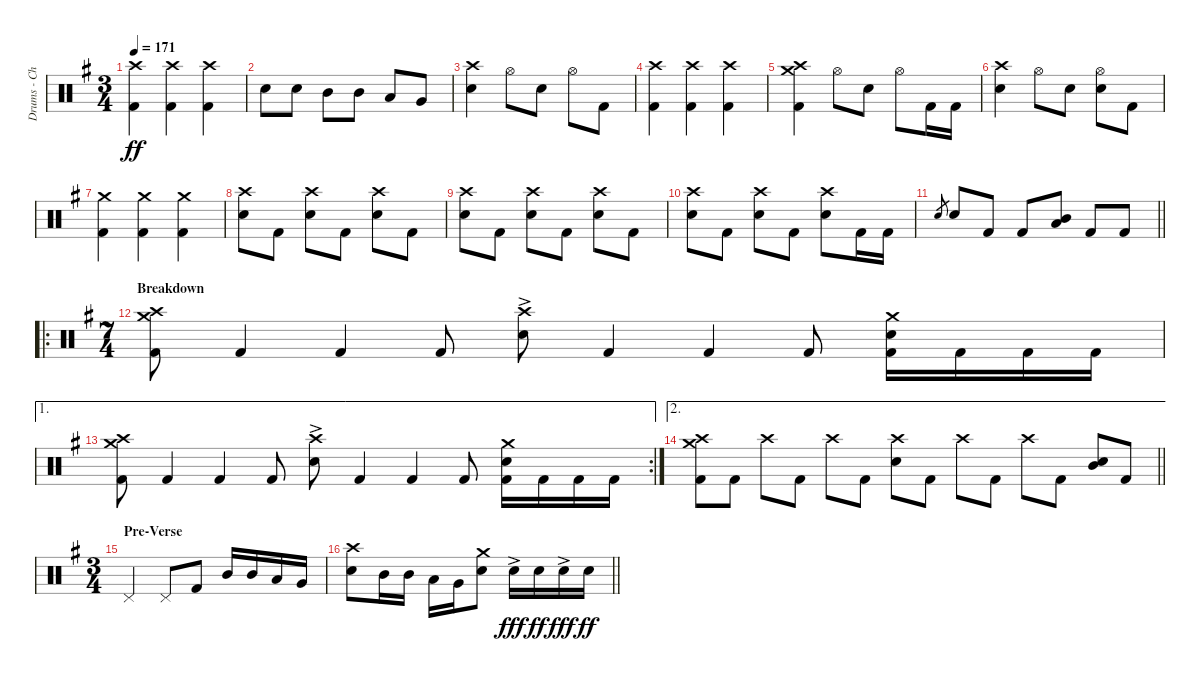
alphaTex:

\track ("Drums - Chris Hornbrook" "Drums - Ch") {instrument percussion}
\staff {score}
\articulation defaults
\ts (3 4)
\tempo 171
\clef neutral
\ks eminor
("Crash high (hit)" "Kick (hit) 2").4{dy ff} ("Crash high (hit)" "Kick (hit) 2").4 ("Crash high (hit)" "Kick (hit) 2").4 |
"Electric Snare (hit)".8 "Electric Snare (hit)".8 "Mid Tom (hit)".8 "Mid Tom (hit)".8 "Low Tom (hit)".8 "Very Low Tom (hit)".8 |
("Crash high (hit)" "Electric Snare (hit)").4 "Hi-Hat (open)".8 "Electric Snare (hit)".8 "Hi-Hat (open)".8 "Kick (hit) 2".8 |
("Crash high (hit)" "Kick (hit) 2").4 ("Crash high (hit)" "Kick (hit) 2").4 ("Crash high (hit)" "Kick (hit) 2").4 |
("Crash medium (hit)" "Crash high (hit)" "Kick (hit) 2").4 "Hi-Hat (open)".8 "Electric Snare (hit)".8 "Hi-Hat (open)".8 "Kick (hit) 2".16 "Kick (hit) 2".16 |
("Crash high (hit)" "Electric Snare (hit)").4 "Hi-Hat (open)".8 "Electric Snare (hit)".8 ("Hi-Hat (open)" "Electric Snare (hit)").8 "Kick (hit) 2".8 |
("Crash medium (hit)" "Kick (hit) 2").4 ("Crash medium (hit)" "Kick (hit) 2").4 ("Crash medium (hit)" "Kick (hit) 2").4 |
("Crash high (hit)" "Electric Snare (hit)").8 "Kick (hit) 2".8 ("Crash high (hit)" "Electric Snare (hit)").8 "Kick (hit) 2".8 ("Crash high (hit)" "Electric Snare (hit)").8 "Kick (hit) 2".8 |
("Crash high (hit)" "Electric Snare (hit)").8 "Kick (hit) 2".8 ("Crash high (hit)" "Electric Snare (hit)").8 "Kick (hit) 2".8 ("Crash high (hit)" "Electric Snare (hit)").8 "Kick (hit) 2".8 |
("Crash high (hit)" "Electric Snare (hit)").8 "Kick (hit) 2".8 ("Crash high (hit)" "Electric Snare (hit)").8 "Kick (hit) 2".8 ("Crash high (hit)" "Electric Snare (hit)").8 "Kick (hit) 2".16 "Kick (hit) 2".16 |
\barLineRight lightlight "Electric Snare (hit)".8{gr} "Electric Snare (hit)".8 "Kick (hit) 2".8 "Kick (hit) 2".8
("Mid Tom (hit)" "Low Tom (hit)").8{bu 120} "Kick (hit) 2".8 "Kick (hit) 2".8 |
\ro
\ts (7 4)
\section ("" "Breakdown")
("Crash medium (hit)" "Crash high (hit)" "Kick (hit) 2").8 "Kick (hit) 2".4 "Kick (hit) 2".4 "Kick (hit) 2".8 ("Crash high (hit)"{ac} "Electric Snare (hit)").8 "Kick (hit) 2".4 "Kick (hit) 2".4 "Kick (hit) 2".8 ("Crash medium (hit)" "Electric Snare (hit)" "Kick (hit) 2").16 "Kick (hit) 2".16 "Kick (hit) 2".16 "Kick (hit) 2".16 |
\ae 1
\rc 2
("Crash medium (hit)" "Crash high (hit)" "Kick (hit) 2").8 "Kick (hit) 2".4 "Kick (hit) 2".4 "Kick (hit) 2".8 ("Crash high (hit)"{ac} "Electric Snare (hit)").8 "Kick (hit) 2".4 "Kick (hit) 2".4 "Kick (hit) 2".8 ("Crash medium (hit)" "Electric Snare (hit)" "Kick (hit) 2").16 "Kick (hit) 2".16 "Kick (hit) 2".16 "Kick (hit) 2".16 |
\ae 2
\barLineRight lightlight
("Crash medium (hit)" "Crash high (hit)" "Kick (hit) 2").8 "Kick (hit) 2".8 "Crash high (hit)".8 "Kick (hit) 2".8 "Crash high (hit)".8 "Kick (hit) 2".8 ("Crash high (hit)" "Electric Snare (hit)").8 "Kick (hit) 2".8 "Crash high (hit)".8 "Kick (hit) 2".8 "Crash high (hit)".8 "Kick (hit) 2".8 ("Mid Tom (hit)" "Electric Snare (hit)").8{bu 120} "Kick (hit) 2".8 |
\ts (3 4)
\section ("" "Pre-Verse")
"Pedal Hi-Hat (hit)".4 "Pedal Hi-Hat (hit)".8 "Kick (hit) 2".8 "Mid Tom (hit)".16 "Mid Tom (hit)".16 "Low Tom (hit)".16 "Very Low Tom (hit)".16 |
\barLineRight lightlight
("Crash high (hit)" "Electric Snare (hit)").8 "Mid Tom (hit)".16 "Mid Tom (hit)".16 "Low Tom (hit)".16 "Very Low Tom (hit)".16 ("Crash medium (hit)" "Electric Snare (hit)").8 "Electric Snare (hit)"{ac}.16{dy fff} "Electric Snare (hit)".16{dy ff} "Electric Snare (hit)"{ac}.16{dy fff} "Electric Snare (hit)".16{dy ff}
